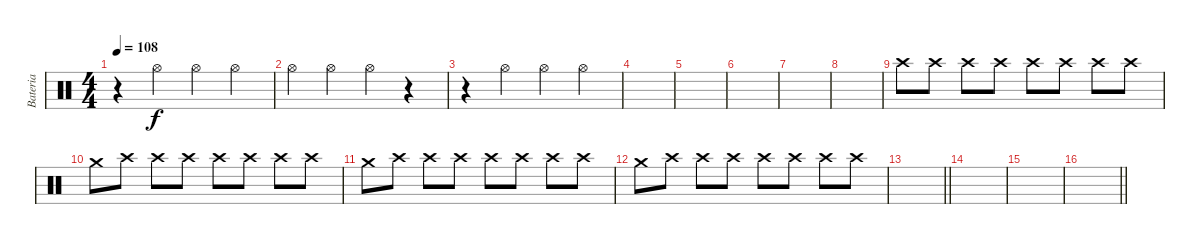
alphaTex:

\track ("Bateria" "Bateria") {instrument percussion}
\staff {score}
\articulation defaults
\ts (4 4)
\tempo 108
\clef neutral
\ks c
r.4{dy f} "Hi-Hat (open)".4 "Hi-Hat (open)".4 "Hi-Hat (open)".4 |
"Hi-Hat (open)".4 "Hi-Hat (open)".4 "Hi-Hat (open)".4 r.4 |
r.4 "Hi-Hat (open)".4 "Hi-Hat (open)".4 "Hi-Hat (open)".4 |
|
|
|
|
|
"Crash high (hit)".8 "Crash high (hit)".8 "Crash high (hit)".8 "Crash high (hit)".8 "Crash high (hit)".8 "Crash high (hit)".8 "Crash high (hit)".8 "Crash high (hit)".8 |
"Crash medium (hit)".8 "Crash high (hit)".8 "Crash high (hit)".8 "Crash high (hit)".8 "Crash high (hit)".8 "Crash high (hit)".8 "Crash high (hit)".8 "Crash high (hit)".8 |
"Crash medium (hit)".8 "Crash high (hit)".8 "Crash high (hit)".8 "Crash high (hit)".8 "Crash high (hit)".8 "Crash high (hit)".8 "Crash high (hit)".8 "Crash high (hit)".8 |
"Crash medium (hit)".8 "Crash high (hit)".8 "Crash high (hit)".8 "Crash high (hit)".8 "Crash high (hit)".8 "Crash high (hit)".8 "Crash high (hit)".8 "Crash high (hit)".8 |
\barLineRight lightlight
|
|
|
\barLineRight lightlight
